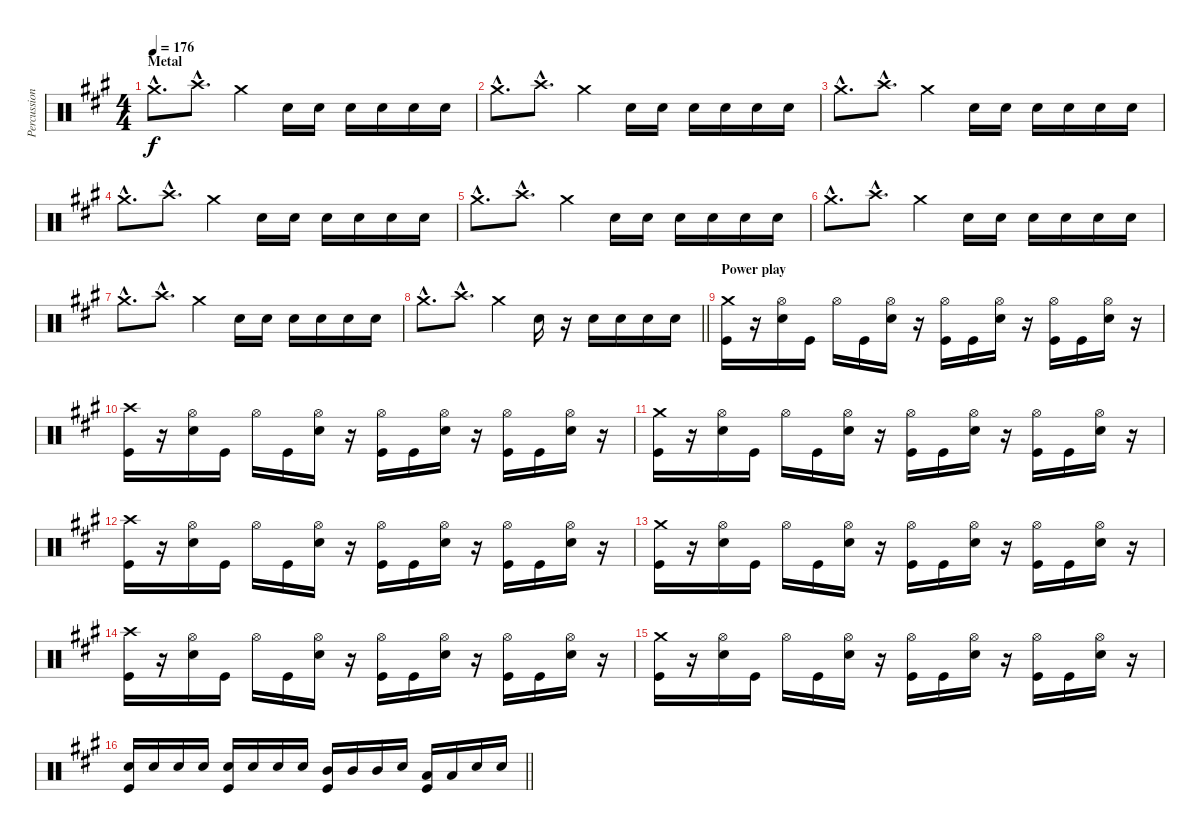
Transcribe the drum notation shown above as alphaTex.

\track ("Percussion" "Percussion") {instrument percussion}
\staff {score}
\articulation defaults
\ts (4 4)
\section ("" "Metal")
\tempo 176
\clef neutral
\ks a "Crash medium (hit)"{hac}.8{d dy f} "Crash high (hit)"{hac}.8{d} "Crash medium (hit)".4 "Snare (hit) 2".16 "Snare (hit) 2".16 "Snare (hit) 2".16 "Snare (hit) 2".16 "Snare (hit) 2".16 "Snare (hit) 2".16
|
"Crash medium (hit)"{hac}.8{d} "Crash high (hit)"{hac}.8{d} "Crash medium (hit)".4 "Snare (hit) 2".16 "Snare (hit) 2".16 "Snare (hit) 2".16 "Snare (hit) 2".16 "Snare (hit) 2".16 "Snare (hit) 2".16 |
"Crash medium (hit)"{hac}.8{d} "Crash high (hit)"{hac}.8{d} "Crash medium (hit)".4 "Snare (hit) 2".16 "Snare (hit) 2".16 "Snare (hit) 2".16 "Snare (hit) 2".16 "Snare (hit) 2".16 "Snare (hit) 2".16 |
"Crash medium (hit)"{hac}.8{d} "Crash high (hit)"{hac}.8{d} "Crash medium (hit)".4 "Snare (hit) 2".16 "Snare (hit) 2".16 "Snare (hit) 2".16 "Snare (hit) 2".16 "Snare (hit) 2".16 "Snare (hit) 2".16 |
"Crash medium (hit)"{hac}.8{d} "Crash high (hit)"{hac}.8{d} "Crash medium (hit)".4 "Snare (hit) 2".16 "Snare (hit) 2".16 "Snare (hit) 2".16 "Snare (hit) 2".16 "Snare (hit) 2".16 "Snare (hit) 2".16 |
"Crash medium (hit)"{hac}.8{d} "Crash high (hit)"{hac}.8{d} "Crash medium (hit)".4 "Snare (hit) 2".16 "Snare (hit) 2".16 "Snare (hit) 2".16 "Snare (hit) 2".16 "Snare (hit) 2".16 "Snare (hit) 2".16 |
"Crash medium (hit)"{hac}.8{d} "Crash high (hit)"{hac}.8{d} "Crash medium (hit)".4 "Snare (hit) 2".16 "Snare (hit) 2".16 "Snare (hit) 2".16 "Snare (hit) 2".16 "Snare (hit) 2".16 "Snare (hit) 2".16 |
\barLineRight lightlight "Crash medium (hit)"{hac}.8{d} "Crash high (hit)"{hac}.8{d} "Crash medium (hit)".4 "Snare (hit) 2".16
r.16 "Snare (hit) 2".16 "Snare (hit) 2".16 "Snare (hit) 2".16 "Snare (hit) 2".16 |
\section ("" "Power play")
("Crash medium (hit)" "Kick (hit)").16 r.16 ("Hi-Hat (open)" "Snare (hit) 2").16 "Kick (hit)".16 "Hi-Hat (open)".16 "Kick (hit)".16 ("Hi-Hat (open)" "Snare (hit) 2").16 r.16 ("Hi-Hat (open)" "Kick (hit)").16 "Kick (hit)".16 ("Hi-Hat (open)" "Snare (hit) 2").16 r.16 ("Hi-Hat (open)" "Kick (hit)").16 "Kick (hit)".16 ("Hi-Hat (open)" "Snare (hit) 2").16 r.16 |
("Crash high (hit)" "Kick (hit)").16 r.16 ("Hi-Hat (open)" "Snare (hit) 2").16 "Kick (hit)".16 "Hi-Hat (open)".16 "Kick (hit)".16 ("Hi-Hat (open)" "Snare (hit) 2").16 r.16 ("Hi-Hat (open)" "Kick (hit)").16 "Kick (hit)".16 ("Hi-Hat (open)" "Snare (hit) 2").16 r.16 ("Hi-Hat (open)" "Kick (hit)").16 "Kick (hit)".16 ("Hi-Hat (open)" "Snare (hit) 2").16 r.16 |
("Crash medium (hit)" "Kick (hit)").16 r.16 ("Hi-Hat (open)" "Snare (hit) 2").16 "Kick (hit)".16 "Hi-Hat (open)".16 "Kick (hit)".16 ("Hi-Hat (open)" "Snare (hit) 2").16 r.16 ("Hi-Hat (open)" "Kick (hit)").16 "Kick (hit)".16 ("Hi-Hat (open)" "Snare (hit) 2").16 r.16 ("Hi-Hat (open)" "Kick (hit)").16 "Kick (hit)".16 ("Hi-Hat (open)" "Snare (hit) 2").16 r.16 |
("Crash high (hit)" "Kick (hit)").16 r.16 ("Hi-Hat (open)" "Snare (hit) 2").16 "Kick (hit)".16 "Hi-Hat (open)".16 "Kick (hit)".16 ("Hi-Hat (open)" "Snare (hit) 2").16 r.16 ("Hi-Hat (open)" "Kick (hit)").16 "Kick (hit)".16 ("Hi-Hat (open)" "Snare (hit) 2").16 r.16 ("Hi-Hat (open)" "Kick (hit)").16 "Kick (hit)".16 ("Hi-Hat (open)" "Snare (hit) 2").16 r.16 |
("Crash medium (hit)" "Kick (hit)").16 r.16 ("Hi-Hat (open)" "Snare (hit) 2").16 "Kick (hit)".16 "Hi-Hat (open)".16 "Kick (hit)".16 ("Hi-Hat (open)" "Snare (hit) 2").16 r.16 ("Hi-Hat (open)" "Kick (hit)").16 "Kick (hit)".16 ("Hi-Hat (open)" "Snare (hit) 2").16 r.16 ("Hi-Hat (open)" "Kick (hit)").16 "Kick (hit)".16 ("Hi-Hat (open)" "Snare (hit) 2").16 r.16 |
("Crash high (hit)" "Kick (hit)").16 r.16 ("Hi-Hat (open)" "Snare (hit) 2").16 "Kick (hit)".16 "Hi-Hat (open)".16 "Kick (hit)".16 ("Hi-Hat (open)" "Snare (hit) 2").16 r.16 ("Hi-Hat (open)" "Kick (hit)").16 "Kick (hit)".16 ("Hi-Hat (open)" "Snare (hit) 2").16 r.16 ("Hi-Hat (open)" "Kick (hit)").16 "Kick (hit)".16 ("Hi-Hat (open)" "Snare (hit) 2").16 r.16 |
("Crash medium (hit)" "Kick (hit)").16 r.16 ("Hi-Hat (open)" "Snare (hit) 2").16 "Kick (hit)".16 "Hi-Hat (open)".16 "Kick (hit)".16 ("Hi-Hat (open)" "Snare (hit) 2").16 r.16 ("Hi-Hat (open)" "Kick (hit)").16 "Kick (hit)".16 ("Hi-Hat (open)" "Snare (hit) 2").16 r.16 ("Hi-Hat (open)" "Kick (hit)").16 "Kick (hit)".16 ("Hi-Hat (open)" "Snare (hit) 2").16 r.16 |
\barLineRight lightlight
("Snare (hit) 2" "Kick (hit)").16 "Snare (hit) 2".16 "Snare (hit) 2".16 "Snare (hit) 2".16 ("Snare (hit) 2" "Kick (hit)").16 "Snare (hit) 2".16 "Snare (hit) 2".16 "Snare (hit) 2".16 ("Mid Tom (hit)" "Kick (hit)").16 "Mid Tom (hit)".16 "Mid Tom (hit)".16 "Snare (hit) 2".16 ("Low Tom (hit)" "Kick (hit)").16 "Low Tom (hit)".16 "Snare (hit) 2".16 "Snare (hit) 2".16
